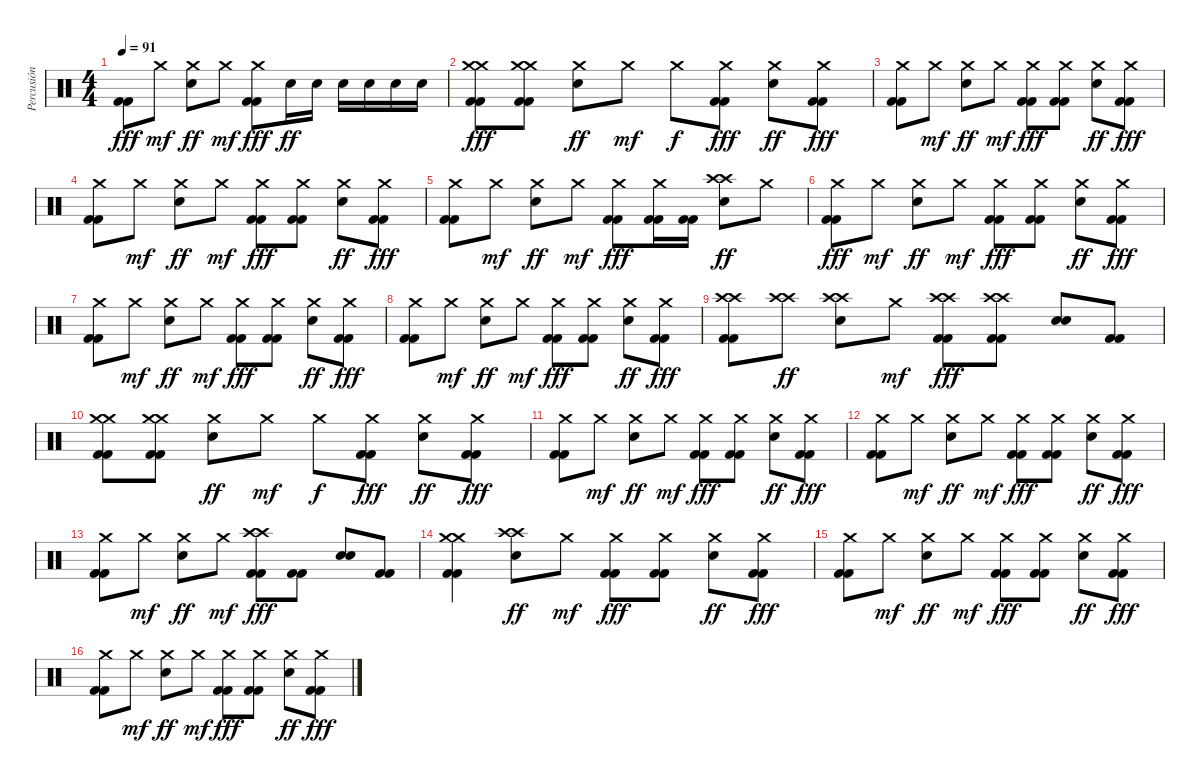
\track ("Percusión" "Percusión") {instrument percussion}
\staff {score}
\articulation defaults
\ts (4 4)
\tempo 91
\clef neutral
\ks c
("Kick (hit) 2" "Kick (hit) 2").8{dy fff} "Crash medium (hit)".8{dy mf} ("Crash medium (hit)" "Electric Snare (hit)").8{dy ff} "Crash medium (hit)".8{dy mf} ("Crash medium (hit)" "Kick (hit) 2" "Kick (hit) 2").8{dy fff} "Electric Snare (hit)".16{dy ff} "Electric Snare (hit)".16 "Electric Snare (hit)".16 "Electric Snare (hit)".16 "Electric Snare (hit)".16 "Electric Snare (hit)".16 |
("Crash medium (hit)" "Crash medium (hit)" "Kick (hit) 2" "Kick (hit) 2").8{dy fff} ("Crash medium (hit)" "Crash medium (hit)" "Kick (hit) 2" "Kick (hit) 2").8 ("Crash medium (hit)" "Electric Snare (hit)").8{dy ff} "Crash medium (hit)".8{dy mf} "Crash medium (hit)".8{dy f} ("Crash medium (hit)" "Kick (hit) 2" "Kick (hit) 2").8{dy fff} ("Crash medium (hit)" "Electric Snare (hit)").8{dy ff} ("Crash medium (hit)" "Kick (hit) 2" "Kick (hit) 2").8{dy fff} |
("Crash medium (hit)" "Kick (hit) 2" "Kick (hit) 2").8 "Crash medium (hit)".8{dy mf} ("Crash medium (hit)" "Electric Snare (hit)").8{dy ff} "Crash medium (hit)".8{dy mf} ("Crash medium (hit)" "Kick (hit) 2" "Kick (hit) 2").8{dy fff} ("Crash medium (hit)" "Kick (hit) 2" "Kick (hit) 2").8 ("Crash medium (hit)" "Electric Snare (hit)").8{dy ff} ("Crash medium (hit)" "Kick (hit) 2" "Kick (hit) 2").8{dy fff} |
("Crash medium (hit)" "Kick (hit) 2" "Kick (hit) 2").8 "Crash medium (hit)".8{dy mf} ("Crash medium (hit)" "Electric Snare (hit)").8{dy ff} "Crash medium (hit)".8{dy mf} ("Crash medium (hit)" "Kick (hit) 2" "Kick (hit) 2").8{dy fff} ("Crash medium (hit)" "Kick (hit) 2" "Kick (hit) 2").8 ("Crash medium (hit)" "Electric Snare (hit)").8{dy ff} ("Crash medium (hit)" "Kick (hit) 2" "Kick (hit) 2").8{dy fff} |
("Crash medium (hit)" "Kick (hit) 2" "Kick (hit) 2").8 "Crash medium (hit)".8{dy mf} ("Crash medium (hit)" "Electric Snare (hit)").8{dy ff} "Crash medium (hit)".8{dy mf} ("Crash medium (hit)" "Kick (hit) 2" "Kick (hit) 2").8{dy fff} ("Crash medium (hit)" "Kick (hit) 2" "Kick (hit) 2").16 ("Kick (hit) 2" "Kick (hit) 2").16 ("Crash high (hit)" "Crash high (hit)" "Electric Snare (hit)").8{dy ff} "Crash medium (hit)".8 |
("Crash medium (hit)" "Kick (hit) 2" "Kick (hit) 2").8{dy fff} "Crash medium (hit)".8{dy mf} ("Crash medium (hit)" "Electric Snare (hit)").8{dy ff} "Crash medium (hit)".8{dy mf} ("Crash medium (hit)" "Kick (hit) 2" "Kick (hit) 2").8{dy fff} ("Crash medium (hit)" "Kick (hit) 2" "Kick (hit) 2").8 ("Crash medium (hit)" "Electric Snare (hit)").8{dy ff} ("Crash medium (hit)" "Kick (hit) 2" "Kick (hit) 2").8{dy fff} |
("Crash medium (hit)" "Kick (hit) 2" "Kick (hit) 2").8 "Crash medium (hit)".8{dy mf} ("Crash medium (hit)" "Electric Snare (hit)").8{dy ff} "Crash medium (hit)".8{dy mf} ("Crash medium (hit)" "Kick (hit) 2" "Kick (hit) 2").8{dy fff} ("Crash medium (hit)" "Kick (hit) 2" "Kick (hit) 2").8 ("Crash medium (hit)" "Electric Snare (hit)").8{dy ff} ("Crash medium (hit)" "Kick (hit) 2" "Kick (hit) 2").8{dy fff} |
("Crash medium (hit)" "Kick (hit) 2" "Kick (hit) 2").8 "Crash medium (hit)".8{dy mf} ("Crash medium (hit)" "Electric Snare (hit)").8{dy ff} "Crash medium (hit)".8{dy mf} ("Crash medium (hit)" "Kick (hit) 2" "Kick (hit) 2").8{dy fff} ("Crash medium (hit)" "Kick (hit) 2" "Kick (hit) 2").8 ("Crash medium (hit)" "Electric Snare (hit)").8{dy ff} ("Crash medium (hit)" "Kick (hit) 2" "Kick (hit) 2").8{dy fff} |
("Crash high (hit)" "Crash high (hit)" "Kick (hit) 2" "Kick (hit) 2").8 ("Crash high (hit)" "Crash high (hit)").8{dy ff} ("Crash high (hit)" "Crash high (hit)" "Electric Snare (hit)").8 "Crash medium (hit)".8{dy mf} ("Crash high (hit)" "Crash high (hit)" "Kick (hit) 2" "Kick (hit) 2").8{dy fff} ("Crash high (hit)" "Crash high (hit)" "Kick (hit) 2" "Kick (hit) 2").8 ("Electric Snare (hit)" "Electric Snare (hit)").8 ("Kick (hit) 2" "Kick (hit) 2").8 |
("Crash medium (hit)" "Crash medium (hit)" "Kick (hit) 2" "Kick (hit) 2").8 ("Crash medium (hit)" "Crash medium (hit)" "Kick (hit) 2" "Kick (hit) 2").8 ("Crash medium (hit)" "Electric Snare (hit)").8{dy ff} "Crash medium (hit)".8{dy mf} "Crash medium (hit)".8{dy f} ("Crash medium (hit)" "Kick (hit) 2" "Kick (hit) 2").8{dy fff} ("Crash medium (hit)" "Electric Snare (hit)").8{dy ff} ("Crash medium (hit)" "Kick (hit) 2" "Kick (hit) 2").8{dy fff} |
("Crash medium (hit)" "Kick (hit) 2" "Kick (hit) 2").8 "Crash medium (hit)".8{dy mf} ("Crash medium (hit)" "Electric Snare (hit)").8{dy ff} "Crash medium (hit)".8{dy mf} ("Crash medium (hit)" "Kick (hit) 2" "Kick (hit) 2").8{dy fff} ("Crash medium (hit)" "Kick (hit) 2" "Kick (hit) 2").8 ("Crash medium (hit)" "Electric Snare (hit)").8{dy ff} ("Crash medium (hit)" "Kick (hit) 2" "Kick (hit) 2").8{dy fff} |
("Crash medium (hit)" "Kick (hit) 2" "Kick (hit) 2").8 "Crash medium (hit)".8{dy mf} ("Crash medium (hit)" "Electric Snare (hit)").8{dy ff} "Crash medium (hit)".8{dy mf} ("Crash medium (hit)" "Kick (hit) 2" "Kick (hit) 2").8{dy fff} ("Crash medium (hit)" "Kick (hit) 2" "Kick (hit) 2").8 ("Crash medium (hit)" "Electric Snare (hit)").8{dy ff} ("Crash medium (hit)" "Kick (hit) 2" "Kick (hit) 2").8{dy fff} |
("Crash medium (hit)" "Kick (hit) 2" "Kick (hit) 2").8 "Crash medium (hit)".8{dy mf} ("Crash medium (hit)" "Electric Snare (hit)").8{dy ff} "Crash medium (hit)".8{dy mf} ("Crash high (hit)" "Crash high (hit)" "Kick (hit) 2" "Kick (hit) 2").8{dy fff} ("Kick (hit) 2" "Kick (hit) 2").8 ("Electric Snare (hit)" "Electric Snare (hit)").8 ("Kick (hit) 2" "Kick (hit) 2").8 |
("Crash medium (hit)" "Crash medium (hit)" "Kick (hit) 2" "Kick (hit) 2").4 ("Crash high (hit)" "Crash high (hit)" "Electric Snare (hit)").8{dy ff} "Crash medium (hit)".8{dy mf} ("Crash medium (hit)" "Kick (hit) 2" "Kick (hit) 2").8{dy fff} ("Crash medium (hit)" "Kick (hit) 2" "Kick (hit) 2").8 ("Crash medium (hit)" "Electric Snare (hit)").8{dy ff} ("Crash medium (hit)" "Kick (hit) 2" "Kick (hit) 2").8{dy fff} |
("Crash medium (hit)" "Kick (hit) 2" "Kick (hit) 2").8 "Crash medium (hit)".8{dy mf} ("Crash medium (hit)" "Electric Snare (hit)").8{dy ff} "Crash medium (hit)".8{dy mf} ("Crash medium (hit)" "Kick (hit) 2" "Kick (hit) 2").8{dy fff} ("Crash medium (hit)" "Kick (hit) 2" "Kick (hit) 2").8 ("Crash medium (hit)" "Electric Snare (hit)").8{dy ff} ("Crash medium (hit)" "Kick (hit) 2" "Kick (hit) 2").8{dy fff} |
("Crash medium (hit)" "Kick (hit) 2" "Kick (hit) 2").8 "Crash medium (hit)".8{dy mf} ("Crash medium (hit)" "Electric Snare (hit)").8{dy ff} "Crash medium (hit)".8{dy mf} ("Crash medium (hit)" "Kick (hit) 2" "Kick (hit) 2").8{dy fff} ("Crash medium (hit)" "Kick (hit) 2" "Kick (hit) 2").8 ("Crash medium (hit)" "Electric Snare (hit)").8{dy ff} ("Crash medium (hit)" "Kick (hit) 2" "Kick (hit) 2").8{dy fff}
